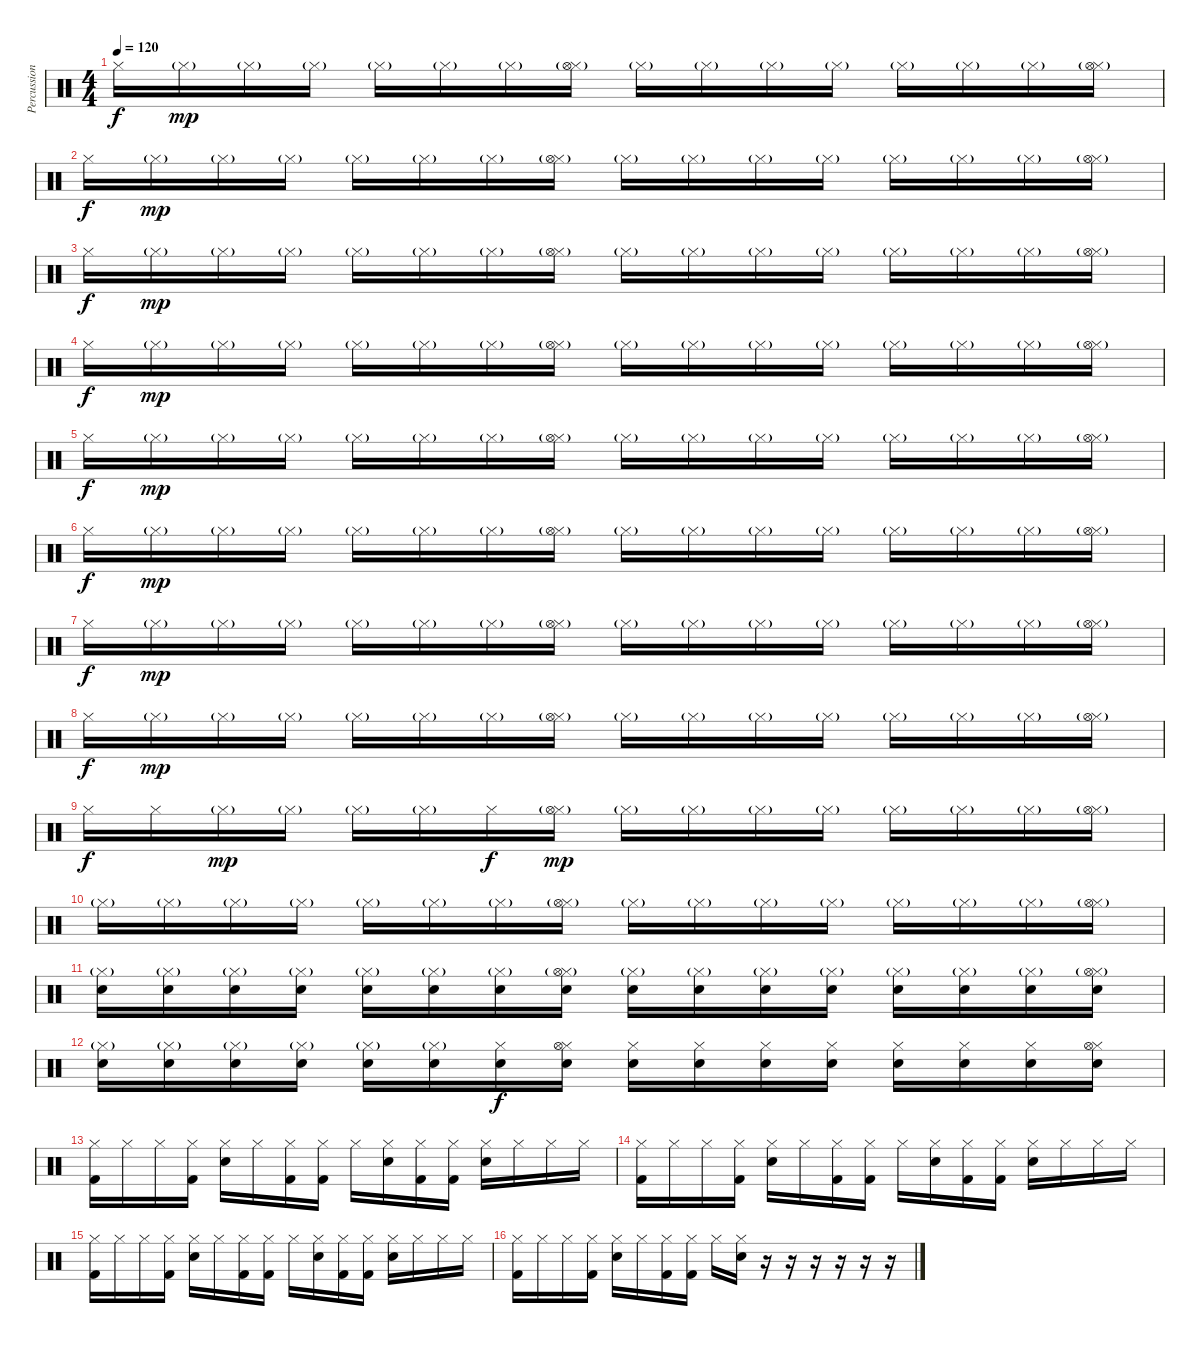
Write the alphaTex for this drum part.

\track ("Percussions" "Percussion") {instrument percussion}
\staff {score}
\articulation defaults
\ts (4 4)
\tempo 120
\clef neutral
\ks c "Hi-Hat (closed)".16{dy f} "Hi-Hat (closed)"{g}.16{dy mp} "Hi-Hat (closed)"{g}.16 "Hi-Hat (closed)"{g}.16 "Hi-Hat (closed)"{g}.16 "Hi-Hat (closed)"{g}.16 "Hi-Hat (closed)"{g}.16
("Hi-Hat (closed)"{g} "Hi-Hat (open)").16 "Hi-Hat (closed)"{g}.16 "Hi-Hat (closed)"{g}.16 "Hi-Hat (closed)"{g}.16 "Hi-Hat (closed)"{g}.16 "Hi-Hat (closed)"{g}.16 "Hi-Hat (closed)"{g}.16 "Hi-Hat (closed)"{g}.16 ("Hi-Hat (closed)"{g} "Hi-Hat (open)").16 |
"Hi-Hat (closed)".16{dy f} "Hi-Hat (closed)"{g}.16{dy mp} "Hi-Hat (closed)"{g}.16 "Hi-Hat (closed)"{g}.16 "Hi-Hat (closed)"{g}.16 "Hi-Hat (closed)"{g}.16 "Hi-Hat (closed)"{g}.16 ("Hi-Hat (closed)"{g} "Hi-Hat (open)").16 "Hi-Hat (closed)"{g}.16 "Hi-Hat (closed)"{g}.16 "Hi-Hat (closed)"{g}.16 "Hi-Hat (closed)"{g}.16 "Hi-Hat (closed)"{g}.16 "Hi-Hat (closed)"{g}.16 "Hi-Hat (closed)"{g}.16 ("Hi-Hat (closed)"{g} "Hi-Hat (open)").16 |
"Hi-Hat (closed)".16{dy f} "Hi-Hat (closed)"{g}.16{dy mp} "Hi-Hat (closed)"{g}.16 "Hi-Hat (closed)"{g}.16 "Hi-Hat (closed)"{g}.16 "Hi-Hat (closed)"{g}.16 "Hi-Hat (closed)"{g}.16 ("Hi-Hat (closed)"{g} "Hi-Hat (open)").16 "Hi-Hat (closed)"{g}.16 "Hi-Hat (closed)"{g}.16 "Hi-Hat (closed)"{g}.16 "Hi-Hat (closed)"{g}.16 "Hi-Hat (closed)"{g}.16 "Hi-Hat (closed)"{g}.16 "Hi-Hat (closed)"{g}.16 ("Hi-Hat (closed)"{g} "Hi-Hat (open)").16 |
"Hi-Hat (closed)".16{dy f} "Hi-Hat (closed)"{g}.16{dy mp} "Hi-Hat (closed)"{g}.16 "Hi-Hat (closed)"{g}.16 "Hi-Hat (closed)"{g}.16 "Hi-Hat (closed)"{g}.16 "Hi-Hat (closed)"{g}.16 ("Hi-Hat (closed)"{g} "Hi-Hat (open)").16 "Hi-Hat (closed)"{g}.16 "Hi-Hat (closed)"{g}.16 "Hi-Hat (closed)"{g}.16 "Hi-Hat (closed)"{g}.16 "Hi-Hat (closed)"{g}.16 "Hi-Hat (closed)"{g}.16 "Hi-Hat (closed)"{g}.16 ("Hi-Hat (closed)"{g} "Hi-Hat (open)").16 |
"Hi-Hat (closed)".16{dy f} "Hi-Hat (closed)"{g}.16{dy mp} "Hi-Hat (closed)"{g}.16 "Hi-Hat (closed)"{g}.16 "Hi-Hat (closed)"{g}.16 "Hi-Hat (closed)"{g}.16 "Hi-Hat (closed)"{g}.16 ("Hi-Hat (closed)"{g} "Hi-Hat (open)").16 "Hi-Hat (closed)"{g}.16 "Hi-Hat (closed)"{g}.16 "Hi-Hat (closed)"{g}.16 "Hi-Hat (closed)"{g}.16 "Hi-Hat (closed)"{g}.16 "Hi-Hat (closed)"{g}.16 "Hi-Hat (closed)"{g}.16 ("Hi-Hat (closed)"{g} "Hi-Hat (open)").16 |
"Hi-Hat (closed)".16{dy f} "Hi-Hat (closed)"{g}.16{dy mp} "Hi-Hat (closed)"{g}.16 "Hi-Hat (closed)"{g}.16 "Hi-Hat (closed)"{g}.16 "Hi-Hat (closed)"{g}.16 "Hi-Hat (closed)"{g}.16 ("Hi-Hat (closed)"{g} "Hi-Hat (open)").16 "Hi-Hat (closed)"{g}.16 "Hi-Hat (closed)"{g}.16 "Hi-Hat (closed)"{g}.16 "Hi-Hat (closed)"{g}.16 "Hi-Hat (closed)"{g}.16 "Hi-Hat (closed)"{g}.16 "Hi-Hat (closed)"{g}.16 ("Hi-Hat (closed)"{g} "Hi-Hat (open)").16 |
"Hi-Hat (closed)".16{dy f} "Hi-Hat (closed)"{g}.16{dy mp} "Hi-Hat (closed)"{g}.16 "Hi-Hat (closed)"{g}.16 "Hi-Hat (closed)"{g}.16 "Hi-Hat (closed)"{g}.16 "Hi-Hat (closed)"{g}.16 ("Hi-Hat (closed)"{g} "Hi-Hat (open)").16 "Hi-Hat (closed)"{g}.16 "Hi-Hat (closed)"{g}.16 "Hi-Hat (closed)"{g}.16 "Hi-Hat (closed)"{g}.16 "Hi-Hat (closed)"{g}.16 "Hi-Hat (closed)"{g}.16 "Hi-Hat (closed)"{g}.16 ("Hi-Hat (closed)"{g} "Hi-Hat (open)").16 |
"Hi-Hat (closed)".16{dy f} "Hi-Hat (closed)"{g}.16{dy mp} "Hi-Hat (closed)"{g}.16 "Hi-Hat (closed)"{g}.16 "Hi-Hat (closed)"{g}.16 "Hi-Hat (closed)"{g}.16 "Hi-Hat (closed)"{g}.16 ("Hi-Hat (closed)"{g} "Hi-Hat (open)").16 "Hi-Hat (closed)"{g}.16 "Hi-Hat (closed)"{g}.16 "Hi-Hat (closed)"{g}.16 "Hi-Hat (closed)"{g}.16 "Hi-Hat (closed)"{g}.16 "Hi-Hat (closed)"{g}.16 "Hi-Hat (closed)"{g}.16 ("Hi-Hat (closed)"{g} "Hi-Hat (open)").16 |
"Hi-Hat (closed)".16{dy f} "Hi-Hat (closed)".16 "Hi-Hat (closed)"{g}.16{dy mp} "Hi-Hat (closed)"{g}.16 "Hi-Hat (closed)"{g}.16 "Hi-Hat (closed)"{g}.16 "Hi-Hat (closed)".16{dy f} ("Hi-Hat (closed)"{g} "Hi-Hat (open)").16{dy mp} "Hi-Hat (closed)"{g}.16 "Hi-Hat (closed)"{g}.16 "Hi-Hat (closed)"{g}.16 "Hi-Hat (closed)"{g}.16 "Hi-Hat (closed)"{g}.16 "Hi-Hat (closed)"{g}.16 "Hi-Hat (closed)"{g}.16 ("Hi-Hat (closed)"{g} "Hi-Hat (open)").16 |
"Hi-Hat (closed)"{g}.16 "Hi-Hat (closed)"{g}.16 "Hi-Hat (closed)"{g}.16 "Hi-Hat (closed)"{g}.16 "Hi-Hat (closed)"{g}.16 "Hi-Hat (closed)"{g}.16 "Hi-Hat (closed)"{g}.16 ("Hi-Hat (closed)"{g} "Hi-Hat (open)").16 "Hi-Hat (closed)"{g}.16 "Hi-Hat (closed)"{g}.16 "Hi-Hat (closed)"{g}.16 "Hi-Hat (closed)"{g}.16 "Hi-Hat (closed)"{g}.16 "Hi-Hat (closed)"{g}.16 "Hi-Hat (closed)"{g}.16 ("Hi-Hat (closed)"{g} "Hi-Hat (open)").16 |
("Hi-Hat (closed)"{g} "Snare (hit) 2").16{volume 5} ("Hi-Hat (closed)"{g} "Snare (hit) 2").16{volume 7} ("Hi-Hat (closed)"{g} "Snare (hit) 2").16{volume 10} ("Hi-Hat (closed)"{g} "Snare (hit) 2").16{volume 9} ("Hi-Hat (closed)"{g} "Snare (hit) 2").16{volume 10} ("Hi-Hat (closed)"{g} "Snare (hit) 2").16{volume 11} ("Hi-Hat (closed)"{g} "Snare (hit) 2").16{volume 12} ("Hi-Hat (closed)"{g} "Snare (hit) 2" "Hi-Hat (open)").16{volume 13} ("Hi-Hat (closed)"{g} "Snare (hit) 2").16{volume 14} ("Hi-Hat (closed)"{g} "Snare (hit) 2").16{volume 15} ("Hi-Hat (closed)"{g} "Snare (hit) 2").16{volume 16} ("Hi-Hat (closed)"{g} "Snare (hit) 2").16 ("Hi-Hat (closed)"{g} "Snare (hit) 2").16 ("Hi-Hat (closed)"{g} "Snare (hit) 2").16 ("Hi-Hat (closed)"{g} "Snare (hit) 2").16 ("Hi-Hat (closed)"{g} "Snare (hit) 2" "Hi-Hat (open)").16 |
("Hi-Hat (closed)"{g} "Snare (hit) 2").16 ("Hi-Hat (closed)"{g} "Snare (hit) 2").16 ("Hi-Hat (closed)"{g} "Snare (hit) 2").16 ("Hi-Hat (closed)"{g} "Snare (hit) 2").16 ("Hi-Hat (closed)"{g} "Snare (hit) 2").16 ("Hi-Hat (closed)"{g} "Snare (hit) 2").16 ("Hi-Hat (closed)" "Snare (hit) 2").16{dy f} ("Hi-Hat (closed)" "Snare (hit) 2" "Hi-Hat (open)").16 ("Hi-Hat (closed)" "Snare (hit) 2").16 ("Hi-Hat (closed)" "Snare (hit) 2").16 ("Hi-Hat (closed)" "Snare (hit) 2").16 ("Hi-Hat (closed)" "Snare (hit) 2").16 ("Hi-Hat (closed)" "Snare (hit) 2").16 ("Hi-Hat (closed)" "Snare (hit) 2").16 ("Hi-Hat (closed)" "Snare (hit) 2").16 ("Hi-Hat (closed)" "Snare (hit) 2" "Hi-Hat (open)").16 |
("Hi-Hat (closed)" "Kick (hit) 2").16{volume 10} "Hi-Hat (closed)".16 "Hi-Hat (closed)".16 ("Hi-Hat (closed)" "Kick (hit) 2").16 ("Hi-Hat (closed)" "Electric Snare (hit)").16 "Hi-Hat (closed)".16 ("Hi-Hat (closed)" "Kick (hit) 2").16 ("Hi-Hat (closed)" "Kick (hit) 2").16 "Hi-Hat (closed)".16 ("Hi-Hat (closed)" "Snare (hit) 2").16 ("Hi-Hat (closed)" "Kick (hit) 2").16 ("Hi-Hat (closed)" "Kick (hit) 2").16 ("Hi-Hat (closed)" "Electric Snare (hit)").16 "Hi-Hat (closed)".16 "Hi-Hat (closed)".16 "Hi-Hat (closed)".16 |
("Hi-Hat (closed)" "Kick (hit) 2").16 "Hi-Hat (closed)".16 "Hi-Hat (closed)".16 ("Hi-Hat (closed)" "Kick (hit) 2").16 ("Hi-Hat (closed)" "Electric Snare (hit)").16 "Hi-Hat (closed)".16 ("Hi-Hat (closed)" "Kick (hit) 2").16 ("Hi-Hat (closed)" "Kick (hit) 2").16 "Hi-Hat (closed)".16 ("Hi-Hat (closed)" "Snare (hit) 2").16 ("Hi-Hat (closed)" "Kick (hit) 2").16 ("Hi-Hat (closed)" "Kick (hit) 2").16 ("Hi-Hat (closed)" "Electric Snare (hit)").16 "Hi-Hat (closed)".16 "Hi-Hat (closed)".16 "Hi-Hat (closed)".16 |
("Hi-Hat (closed)" "Kick (hit) 2").16 "Hi-Hat (closed)".16 "Hi-Hat (closed)".16 ("Hi-Hat (closed)" "Kick (hit) 2").16 ("Hi-Hat (closed)" "Electric Snare (hit)").16 "Hi-Hat (closed)".16 ("Hi-Hat (closed)" "Kick (hit) 2").16 ("Hi-Hat (closed)" "Kick (hit) 2").16 "Hi-Hat (closed)".16 ("Hi-Hat (closed)" "Snare (hit) 2").16 ("Hi-Hat (closed)" "Kick (hit) 2").16 ("Hi-Hat (closed)" "Kick (hit) 2").16 ("Hi-Hat (closed)" "Electric Snare (hit)").16 "Hi-Hat (closed)".16 "Hi-Hat (closed)".16 "Hi-Hat (closed)".16 |
("Hi-Hat (closed)" "Kick (hit) 2").16 "Hi-Hat (closed)".16 "Hi-Hat (closed)".16 ("Hi-Hat (closed)" "Kick (hit) 2").16 ("Hi-Hat (closed)" "Electric Snare (hit)").16 "Hi-Hat (closed)".16 ("Hi-Hat (closed)" "Kick (hit) 2").16 ("Hi-Hat (closed)" "Kick (hit) 2").16 "Hi-Hat (closed)".16 ("Hi-Hat (closed)" "Snare (hit) 2").16 r.16 r.16 r.16 r.16 r.16 r.16
